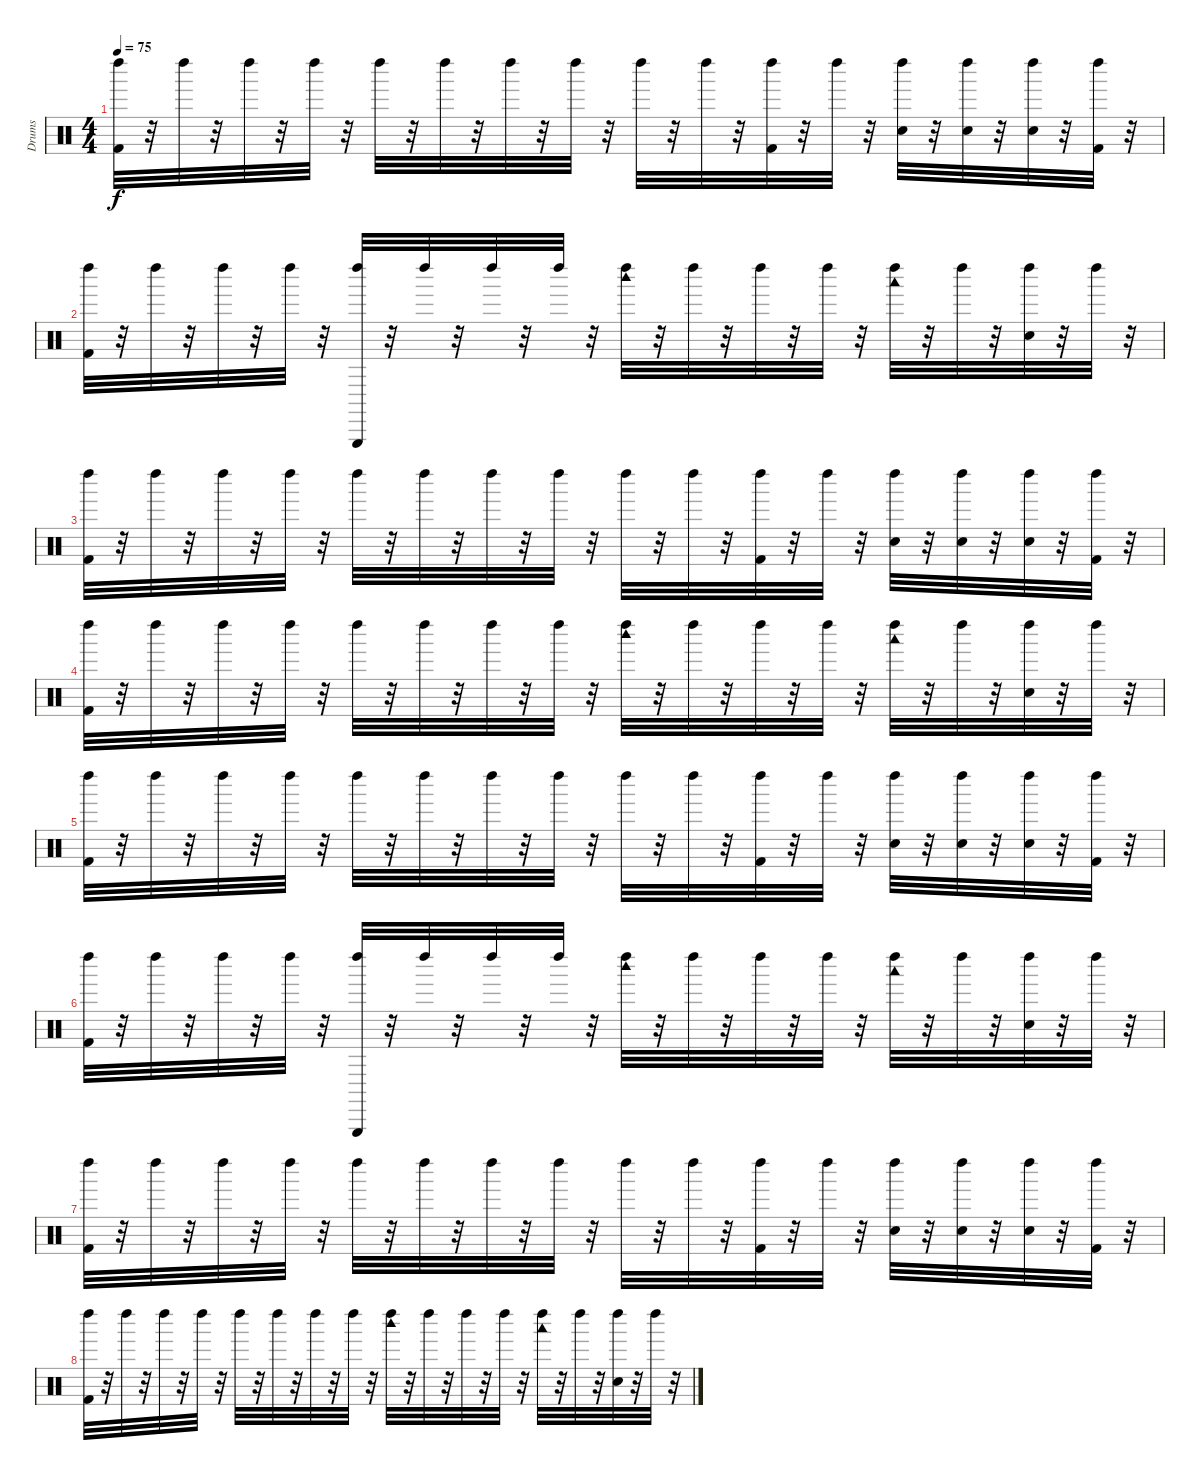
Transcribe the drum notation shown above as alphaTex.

\track ("Drums" "Drums") {instrument percussion}
\staff {score}
\articulation defaults
\ts (4 4)
\tempo 75
\clef neutral
\ks c
("Kick (hit) 2" "Left Maraca (hit)").32{dy f} r.32 "Left Maraca (hit)".32 r.32 "Left Maraca (hit)".32 r.32 "Left Maraca (hit)".32 r.32 "Left Maraca (hit)".32 r.32 "Left Maraca (hit)".32 r.32 "Left Maraca (hit)".32 r.32 "Left Maraca (hit)".32 r.32 "Left Maraca (hit)".32 r.32 "Left Maraca (hit)".32 r.32 ("Kick (hit) 2" "Left Maraca (hit)").32 r.32 "Left Maraca (hit)".32 r.32 ("Snare (hit) 2" "Left Maraca (hit)").32 r.32 ("Snare (hit) 2" "Left Maraca (hit)").32 r.32 ("Snare (hit) 2" "Left Maraca (hit)").32 r.32 ("Kick (hit) 2" "Left Maraca (hit)").32 r.32 |
("Kick (hit) 2" "Left Maraca (hit)").32 r.32 "Left Maraca (hit)".32 r.32 "Left Maraca (hit)".32 r.32 "Left Maraca (hit)".32 r.32 ("Triangle (hit)" "Left Maraca (hit)").32 r.32 "Left Maraca (hit)".32 r.32 "Left Maraca (hit)".32 r.32 "Left Maraca (hit)".32 r.32 ("Woodblock high (hit)" "Left Maraca (hit)").32 r.32 "Left Maraca (hit)".32 r.32 "Left Maraca (hit)".32 r.32 "Left Maraca (hit)".32 r.32 ("Woodblock low (hit)" "Left Maraca (hit)").32 r.32 "Left Maraca (hit)".32 r.32 ("Hand Clap (hit)" "Left Maraca (hit)").32 r.32 "Left Maraca (hit)".32 r.32 |
("Kick (hit) 2" "Left Maraca (hit)").32 r.32 "Left Maraca (hit)".32 r.32 "Left Maraca (hit)".32 r.32 "Left Maraca (hit)".32 r.32 "Left Maraca (hit)".32 r.32 "Left Maraca (hit)".32 r.32 "Left Maraca (hit)".32 r.32 "Left Maraca (hit)".32 r.32 "Left Maraca (hit)".32 r.32 "Left Maraca (hit)".32 r.32 ("Kick (hit) 2" "Left Maraca (hit)").32 r.32 "Left Maraca (hit)".32 r.32 ("Snare (hit) 2" "Left Maraca (hit)").32 r.32 ("Snare (hit) 2" "Left Maraca (hit)").32 r.32 ("Snare (hit) 2" "Left Maraca (hit)").32 r.32 ("Kick (hit) 2" "Left Maraca (hit)").32 r.32 |
("Kick (hit) 2" "Left Maraca (hit)").32 r.32 "Left Maraca (hit)".32 r.32 "Left Maraca (hit)".32 r.32 "Left Maraca (hit)".32 r.32 "Left Maraca (hit)".32 r.32 "Left Maraca (hit)".32 r.32 "Left Maraca (hit)".32 r.32 "Left Maraca (hit)".32 r.32 ("Woodblock high (hit)" "Left Maraca (hit)").32 r.32 "Left Maraca (hit)".32 r.32 "Left Maraca (hit)".32 r.32 "Left Maraca (hit)".32 r.32 ("Woodblock low (hit)" "Left Maraca (hit)").32 r.32 "Left Maraca (hit)".32 r.32 ("Hand Clap (hit)" "Left Maraca (hit)").32 r.32 "Left Maraca (hit)".32 r.32 |
("Kick (hit) 2" "Left Maraca (hit)").32 r.32 "Left Maraca (hit)".32 r.32 "Left Maraca (hit)".32 r.32 "Left Maraca (hit)".32 r.32 "Left Maraca (hit)".32 r.32 "Left Maraca (hit)".32 r.32 "Left Maraca (hit)".32 r.32 "Left Maraca (hit)".32 r.32 "Left Maraca (hit)".32 r.32 "Left Maraca (hit)".32 r.32 ("Kick (hit) 2" "Left Maraca (hit)").32 r.32 "Left Maraca (hit)".32 r.32 ("Snare (hit) 2" "Left Maraca (hit)").32 r.32 ("Snare (hit) 2" "Left Maraca (hit)").32 r.32 ("Snare (hit) 2" "Left Maraca (hit)").32 r.32 ("Kick (hit) 2" "Left Maraca (hit)").32 r.32 |
("Kick (hit) 2" "Left Maraca (hit)").32 r.32 "Left Maraca (hit)".32 r.32 "Left Maraca (hit)".32 r.32 "Left Maraca (hit)".32 r.32 ("Triangle (hit)" "Left Maraca (hit)").32 r.32 "Left Maraca (hit)".32 r.32 "Left Maraca (hit)".32 r.32 "Left Maraca (hit)".32 r.32 ("Woodblock high (hit)" "Left Maraca (hit)").32 r.32 "Left Maraca (hit)".32 r.32 "Left Maraca (hit)".32 r.32 "Left Maraca (hit)".32 r.32 ("Woodblock low (hit)" "Left Maraca (hit)").32 r.32 "Left Maraca (hit)".32 r.32 ("Hand Clap (hit)" "Left Maraca (hit)").32 r.32 "Left Maraca (hit)".32 r.32 |
("Kick (hit) 2" "Left Maraca (hit)").32 r.32 "Left Maraca (hit)".32 r.32 "Left Maraca (hit)".32 r.32 "Left Maraca (hit)".32 r.32 "Left Maraca (hit)".32 r.32 "Left Maraca (hit)".32 r.32 "Left Maraca (hit)".32 r.32 "Left Maraca (hit)".32 r.32 "Left Maraca (hit)".32 r.32 "Left Maraca (hit)".32 r.32 ("Kick (hit) 2" "Left Maraca (hit)").32 r.32 "Left Maraca (hit)".32 r.32 ("Snare (hit) 2" "Left Maraca (hit)").32 r.32 ("Snare (hit) 2" "Left Maraca (hit)").32 r.32 ("Snare (hit) 2" "Left Maraca (hit)").32 r.32 ("Kick (hit) 2" "Left Maraca (hit)").32 r.32 |
("Kick (hit) 2" "Left Maraca (hit)").32 r.32 "Left Maraca (hit)".32 r.32 "Left Maraca (hit)".32 r.32 "Left Maraca (hit)".32 r.32 "Left Maraca (hit)".32 r.32 "Left Maraca (hit)".32 r.32 "Left Maraca (hit)".32 r.32 "Left Maraca (hit)".32 r.32 ("Woodblock high (hit)" "Left Maraca (hit)").32 r.32 "Left Maraca (hit)".32 r.32 "Left Maraca (hit)".32 r.32 "Left Maraca (hit)".32 r.32 ("Woodblock low (hit)" "Left Maraca (hit)").32 r.32 "Left Maraca (hit)".32 r.32 ("Hand Clap (hit)" "Left Maraca (hit)").32 r.32 "Left Maraca (hit)".32 r.32
